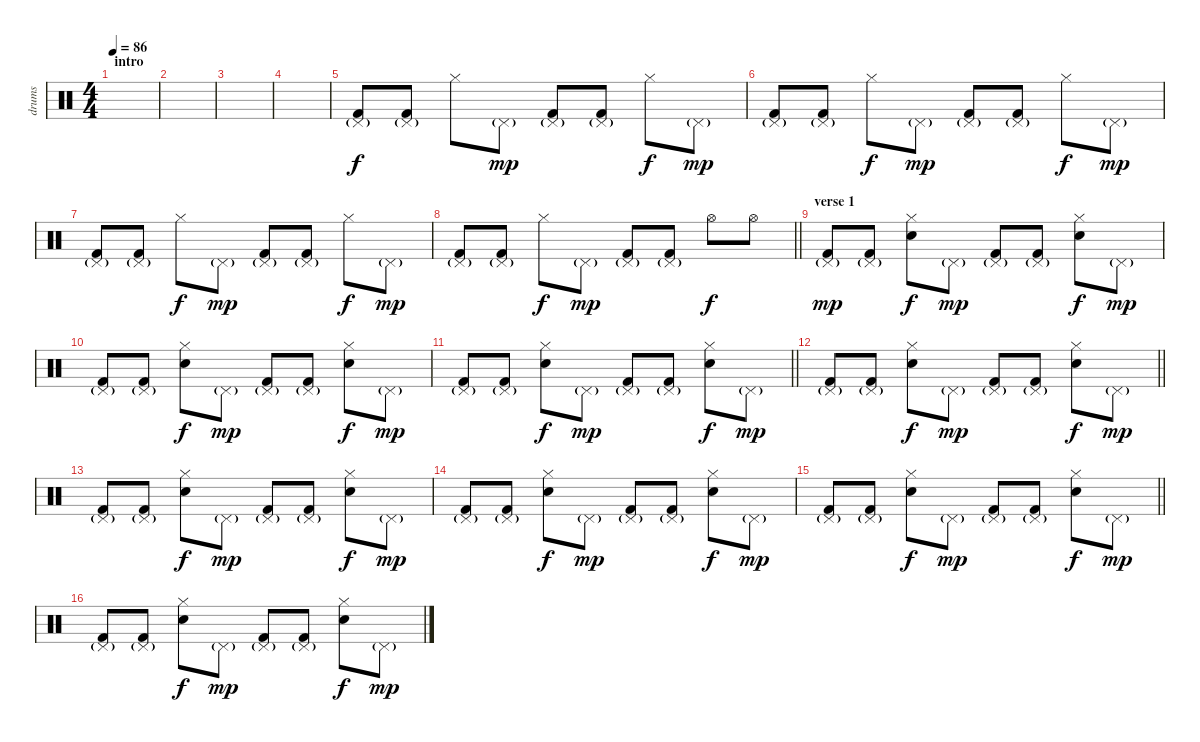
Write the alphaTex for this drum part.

\track ("drums" "drums") {instrument percussion}
\staff {score}
\articulation defaults
\ts (4 4)
\section ("" "intro")
\tempo 86
\clef neutral
\ks c
|
|
|
|
("Kick (hit) 2" "Pedal Hi-Hat (hit)"{g}).8 ("Kick (hit) 2" "Pedal Hi-Hat (hit)"{g}).8 "Hi-Hat (closed)".8{dy f} "Pedal Hi-Hat (hit)"{g}.8{dy mp} ("Kick (hit) 2" "Pedal Hi-Hat (hit)"{g}).8 ("Kick (hit) 2" "Pedal Hi-Hat (hit)"{g}).8 "Hi-Hat (closed)".8{dy f} "Pedal Hi-Hat (hit)"{g}.8{dy mp} |
("Kick (hit) 2" "Pedal Hi-Hat (hit)"{g}).8 ("Kick (hit) 2" "Pedal Hi-Hat (hit)"{g}).8 "Hi-Hat (closed)".8{dy f} "Pedal Hi-Hat (hit)"{g}.8{dy mp} ("Kick (hit) 2" "Pedal Hi-Hat (hit)"{g}).8 ("Kick (hit) 2" "Pedal Hi-Hat (hit)"{g}).8 "Hi-Hat (closed)".8{dy f} "Pedal Hi-Hat (hit)"{g}.8{dy mp} |
("Kick (hit) 2" "Pedal Hi-Hat (hit)"{g}).8 ("Kick (hit) 2" "Pedal Hi-Hat (hit)"{g}).8 "Hi-Hat (closed)".8{dy f} "Pedal Hi-Hat (hit)"{g}.8{dy mp} ("Kick (hit) 2" "Pedal Hi-Hat (hit)"{g}).8 ("Kick (hit) 2" "Pedal Hi-Hat (hit)"{g}).8 "Hi-Hat (closed)".8{dy f} "Pedal Hi-Hat (hit)"{g}.8{dy mp} |
\barLineRight lightlight
("Kick (hit) 2" "Pedal Hi-Hat (hit)"{g}).8 ("Kick (hit) 2" "Pedal Hi-Hat (hit)"{g}).8 "Hi-Hat (closed)".8{dy f} "Pedal Hi-Hat (hit)"{g}.8{dy mp} ("Kick (hit) 2" "Pedal Hi-Hat (hit)"{g}).8 ("Kick (hit) 2" "Pedal Hi-Hat (hit)"{g}).8 "Hi-Hat (open)".8{dy f} "Hi-Hat (open)".8 |
\section ("" "verse 1")
("Kick (hit) 2" "Pedal Hi-Hat (hit)"{g}).8{dy mp} ("Kick (hit) 2" "Pedal Hi-Hat (hit)"{g}).8 ("Electric Snare (hit)" "Hi-Hat (closed)").8{dy f} "Pedal Hi-Hat (hit)"{g}.8{dy mp} ("Kick (hit) 2" "Pedal Hi-Hat (hit)"{g}).8 ("Kick (hit) 2" "Pedal Hi-Hat (hit)"{g}).8 ("Electric Snare (hit)" "Hi-Hat (closed)").8{dy f} "Pedal Hi-Hat (hit)"{g}.8{dy mp} |
("Kick (hit) 2" "Pedal Hi-Hat (hit)"{g}).8 ("Kick (hit) 2" "Pedal Hi-Hat (hit)"{g}).8 ("Electric Snare (hit)" "Hi-Hat (closed)").8{dy f} "Pedal Hi-Hat (hit)"{g}.8{dy mp} ("Kick (hit) 2" "Pedal Hi-Hat (hit)"{g}).8 ("Kick (hit) 2" "Pedal Hi-Hat (hit)"{g}).8 ("Electric Snare (hit)" "Hi-Hat (closed)").8{dy f} "Pedal Hi-Hat (hit)"{g}.8{dy mp} |
\barLineRight lightlight
("Kick (hit) 2" "Pedal Hi-Hat (hit)"{g}).8 ("Kick (hit) 2" "Pedal Hi-Hat (hit)"{g}).8 ("Electric Snare (hit)" "Hi-Hat (closed)").8{dy f} "Pedal Hi-Hat (hit)"{g}.8{dy mp} ("Kick (hit) 2" "Pedal Hi-Hat (hit)"{g}).8 ("Kick (hit) 2" "Pedal Hi-Hat (hit)"{g}).8 ("Electric Snare (hit)" "Hi-Hat (closed)").8{dy f} "Pedal Hi-Hat (hit)"{g}.8{dy mp} |
\barLineRight lightlight
("Kick (hit) 2" "Pedal Hi-Hat (hit)"{g}).8 ("Kick (hit) 2" "Pedal Hi-Hat (hit)"{g}).8 ("Electric Snare (hit)" "Hi-Hat (closed)").8{dy f} "Pedal Hi-Hat (hit)"{g}.8{dy mp} ("Kick (hit) 2" "Pedal Hi-Hat (hit)"{g}).8 ("Kick (hit) 2" "Pedal Hi-Hat (hit)"{g}).8 ("Electric Snare (hit)" "Hi-Hat (closed)").8{dy f} "Pedal Hi-Hat (hit)"{g}.8{dy mp} |
("Kick (hit) 2" "Pedal Hi-Hat (hit)"{g}).8 ("Kick (hit) 2" "Pedal Hi-Hat (hit)"{g}).8 ("Electric Snare (hit)" "Hi-Hat (closed)").8{dy f} "Pedal Hi-Hat (hit)"{g}.8{dy mp} ("Kick (hit) 2" "Pedal Hi-Hat (hit)"{g}).8 ("Kick (hit) 2" "Pedal Hi-Hat (hit)"{g}).8 ("Electric Snare (hit)" "Hi-Hat (closed)").8{dy f} "Pedal Hi-Hat (hit)"{g}.8{dy mp} |
("Kick (hit) 2" "Pedal Hi-Hat (hit)"{g}).8 ("Kick (hit) 2" "Pedal Hi-Hat (hit)"{g}).8 ("Electric Snare (hit)" "Hi-Hat (closed)").8{dy f} "Pedal Hi-Hat (hit)"{g}.8{dy mp} ("Kick (hit) 2" "Pedal Hi-Hat (hit)"{g}).8 ("Kick (hit) 2" "Pedal Hi-Hat (hit)"{g}).8 ("Electric Snare (hit)" "Hi-Hat (closed)").8{dy f} "Pedal Hi-Hat (hit)"{g}.8{dy mp} |
\barLineRight lightlight
("Kick (hit) 2" "Pedal Hi-Hat (hit)"{g}).8 ("Kick (hit) 2" "Pedal Hi-Hat (hit)"{g}).8 ("Electric Snare (hit)" "Hi-Hat (closed)").8{dy f} "Pedal Hi-Hat (hit)"{g}.8{dy mp} ("Kick (hit) 2" "Pedal Hi-Hat (hit)"{g}).8 ("Kick (hit) 2" "Pedal Hi-Hat (hit)"{g}).8 ("Electric Snare (hit)" "Hi-Hat (closed)").8{dy f} "Pedal Hi-Hat (hit)"{g}.8{dy mp} |
("Kick (hit) 2" "Pedal Hi-Hat (hit)"{g}).8 ("Kick (hit) 2" "Pedal Hi-Hat (hit)"{g}).8 ("Electric Snare (hit)" "Hi-Hat (closed)").8{dy f} "Pedal Hi-Hat (hit)"{g}.8{dy mp} ("Kick (hit) 2" "Pedal Hi-Hat (hit)"{g}).8 ("Kick (hit) 2" "Pedal Hi-Hat (hit)"{g}).8 ("Electric Snare (hit)" "Hi-Hat (closed)").8{dy f} "Pedal Hi-Hat (hit)"{g}.8{dy mp}
